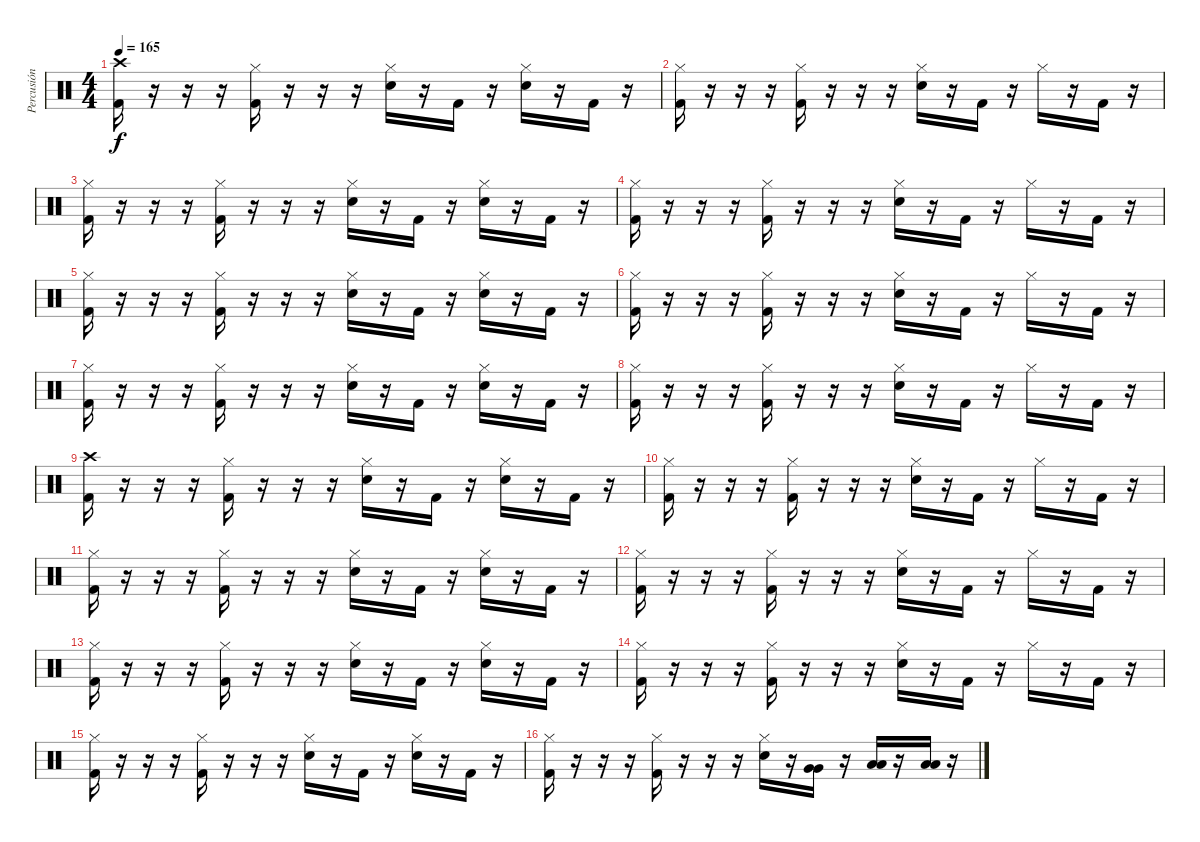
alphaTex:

\track ("Percusión" "Percusión") {instrument percussion}
\staff {score}
\articulation defaults
\ts (4 4)
\tempo 165
\clef neutral
\ks c
("Crash high (hit)" "Kick (hit) 2").16{dy f} r.16 r.16 r.16 ("Hi-Hat (closed)" "Kick (hit) 2").16 r.16 r.16 r.16 ("Hi-Hat (closed)" "Electric Snare (hit)").16 r.16 "Kick (hit) 2".16 r.16 ("Hi-Hat (closed)" "Electric Snare (hit)").16 r.16 "Kick (hit) 2".16 r.16 |
("Hi-Hat (closed)" "Kick (hit) 2").16 r.16 r.16 r.16 ("Hi-Hat (closed)" "Kick (hit) 2").16 r.16 r.16 r.16 ("Hi-Hat (closed)" "Electric Snare (hit)").16 r.16 "Kick (hit) 2".16 r.16 "Hi-Hat (closed)".16 r.16 "Kick (hit) 2".16 r.16 |
("Hi-Hat (closed)" "Kick (hit) 2").16 r.16 r.16 r.16 ("Hi-Hat (closed)" "Kick (hit) 2").16 r.16 r.16 r.16 ("Hi-Hat (closed)" "Electric Snare (hit)").16 r.16 "Kick (hit) 2".16 r.16 ("Hi-Hat (closed)" "Electric Snare (hit)").16 r.16 "Kick (hit) 2".16 r.16 |
("Hi-Hat (closed)" "Kick (hit) 2").16 r.16 r.16 r.16 ("Hi-Hat (closed)" "Kick (hit) 2").16 r.16 r.16 r.16 ("Hi-Hat (closed)" "Electric Snare (hit)").16 r.16 "Kick (hit) 2".16 r.16 "Hi-Hat (closed)".16 r.16 "Kick (hit) 2".16 r.16 |
("Hi-Hat (closed)" "Kick (hit) 2").16 r.16 r.16 r.16 ("Hi-Hat (closed)" "Kick (hit) 2").16 r.16 r.16 r.16 ("Hi-Hat (closed)" "Electric Snare (hit)").16 r.16 "Kick (hit) 2".16 r.16 ("Hi-Hat (closed)" "Electric Snare (hit)").16 r.16 "Kick (hit) 2".16 r.16 |
("Hi-Hat (closed)" "Kick (hit) 2").16 r.16 r.16 r.16 ("Hi-Hat (closed)" "Kick (hit) 2").16 r.16 r.16 r.16 ("Hi-Hat (closed)" "Electric Snare (hit)").16 r.16 "Kick (hit) 2".16 r.16 "Hi-Hat (closed)".16 r.16 "Kick (hit) 2".16 r.16 |
("Hi-Hat (closed)" "Kick (hit) 2").16 r.16 r.16 r.16 ("Hi-Hat (closed)" "Kick (hit) 2").16 r.16 r.16 r.16 ("Hi-Hat (closed)" "Electric Snare (hit)").16 r.16 "Kick (hit) 2".16 r.16 ("Hi-Hat (closed)" "Electric Snare (hit)").16 r.16 "Kick (hit) 2".16 r.16 |
("Hi-Hat (closed)" "Kick (hit) 2").16 r.16 r.16 r.16 ("Hi-Hat (closed)" "Kick (hit) 2").16 r.16 r.16 r.16 ("Hi-Hat (closed)" "Electric Snare (hit)").16 r.16 "Kick (hit) 2".16 r.16 "Hi-Hat (closed)".16 r.16 "Kick (hit) 2".16 r.16 |
("Crash high (hit)" "Kick (hit) 2").16 r.16 r.16 r.16 ("Hi-Hat (closed)" "Kick (hit) 2").16 r.16 r.16 r.16 ("Hi-Hat (closed)" "Electric Snare (hit)").16 r.16 "Kick (hit) 2".16 r.16 ("Hi-Hat (closed)" "Electric Snare (hit)").16 r.16 "Kick (hit) 2".16 r.16 |
("Hi-Hat (closed)" "Kick (hit) 2").16 r.16 r.16 r.16 ("Hi-Hat (closed)" "Kick (hit) 2").16 r.16 r.16 r.16 ("Hi-Hat (closed)" "Electric Snare (hit)").16 r.16 "Kick (hit) 2".16 r.16 "Hi-Hat (closed)".16 r.16 "Kick (hit) 2".16 r.16 |
("Hi-Hat (closed)" "Kick (hit) 2").16 r.16 r.16 r.16 ("Hi-Hat (closed)" "Kick (hit) 2").16 r.16 r.16 r.16 ("Hi-Hat (closed)" "Electric Snare (hit)").16 r.16 "Kick (hit) 2".16 r.16 ("Hi-Hat (closed)" "Electric Snare (hit)").16 r.16 "Kick (hit) 2".16 r.16 |
("Hi-Hat (closed)" "Kick (hit) 2").16 r.16 r.16 r.16 ("Hi-Hat (closed)" "Kick (hit) 2").16 r.16 r.16 r.16 ("Hi-Hat (closed)" "Electric Snare (hit)").16 r.16 "Kick (hit) 2".16 r.16 "Hi-Hat (closed)".16 r.16 "Kick (hit) 2".16 r.16 |
("Hi-Hat (closed)" "Kick (hit) 2").16 r.16 r.16 r.16 ("Hi-Hat (closed)" "Kick (hit) 2").16 r.16 r.16 r.16 ("Hi-Hat (closed)" "Electric Snare (hit)").16 r.16 "Kick (hit) 2".16 r.16 ("Hi-Hat (closed)" "Electric Snare (hit)").16 r.16 "Kick (hit) 2".16 r.16 |
("Hi-Hat (closed)" "Kick (hit) 2").16 r.16 r.16 r.16 ("Hi-Hat (closed)" "Kick (hit) 2").16 r.16 r.16 r.16 ("Hi-Hat (closed)" "Electric Snare (hit)").16 r.16 "Kick (hit) 2".16 r.16 "Hi-Hat (closed)".16 r.16 "Kick (hit) 2".16 r.16 |
("Hi-Hat (closed)" "Kick (hit) 2").16 r.16 r.16 r.16 ("Hi-Hat (closed)" "Kick (hit) 2").16 r.16 r.16 r.16 ("Hi-Hat (closed)" "Electric Snare (hit)").16 r.16 "Kick (hit) 2".16 r.16 ("Hi-Hat (closed)" "Electric Snare (hit)").16 r.16 "Kick (hit) 2".16 r.16 |
("Hi-Hat (closed)" "Kick (hit) 2").16 r.16 r.16 r.16 ("Hi-Hat (closed)" "Kick (hit) 2").16 r.16 r.16 r.16 ("Hi-Hat (closed)" "Electric Snare (hit)").16 r.16 ("Very Low Tom (hit)" "Very Low Tom (hit)").16 r.16 ("Low Floor Tom (hit)" "Low Floor Tom (hit)").16 r.16 ("Low Floor Tom (hit)" "Low Floor Tom (hit)").16 r.16
